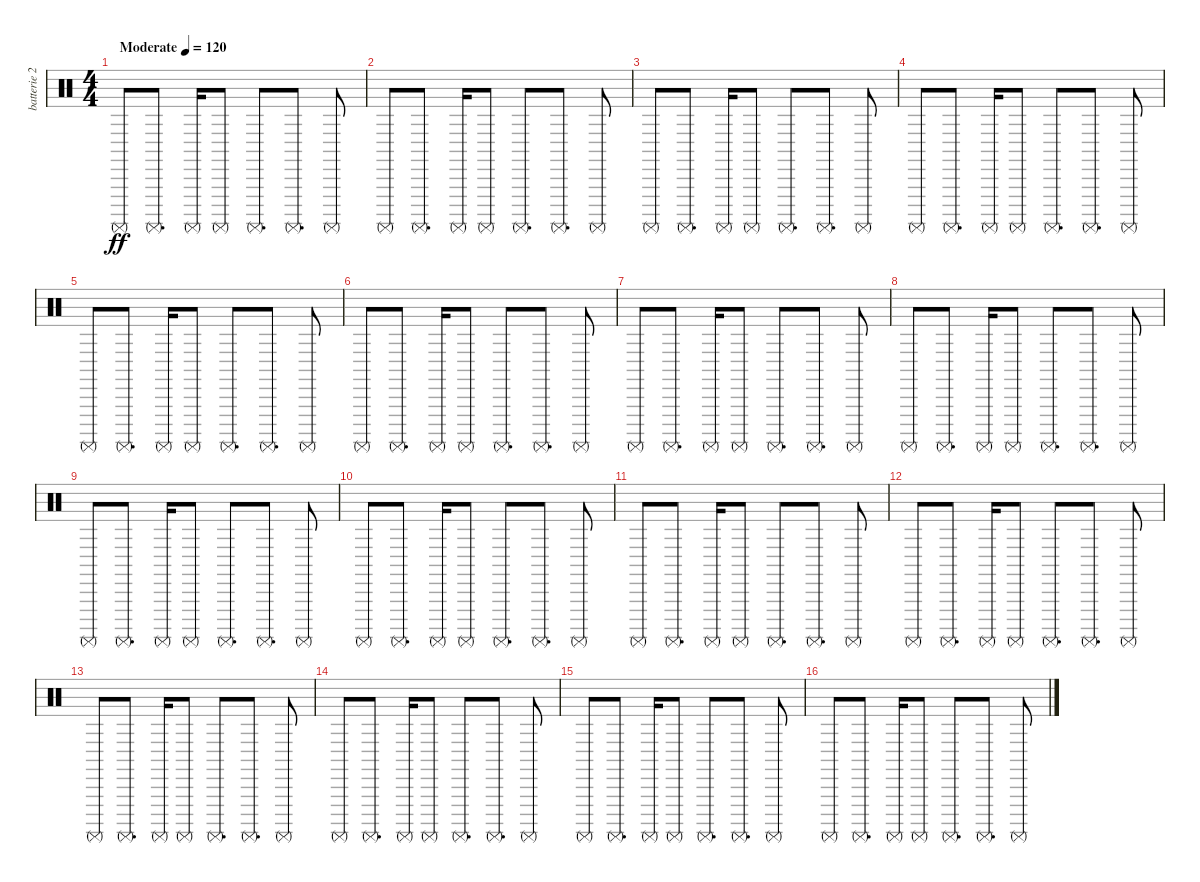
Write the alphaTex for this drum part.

\track ("batterie 2" "batterie 2") {instrument percussion}
\staff {score}
\articulation defaults
\ts (4 4)
\tempo (120 "Moderate")
\clef neutral
\ks c "Surdo (mute)".8{dy ff} "Surdo (mute)".8{d} "Surdo (mute)".16 "Surdo (mute)".8 "Surdo (mute)".8{d} "Surdo (mute)".8{d} "Surdo (mute)".8
|
"Surdo (mute)".8 "Surdo (mute)".8{d} "Surdo (mute)".16 "Surdo (mute)".8 "Surdo (mute)".8{d} "Surdo (mute)".8{d} "Surdo (mute)".8 |
"Surdo (mute)".8 "Surdo (mute)".8{d} "Surdo (mute)".16 "Surdo (mute)".8 "Surdo (mute)".8{d} "Surdo (mute)".8{d} "Surdo (mute)".8 |
"Surdo (mute)".8 "Surdo (mute)".8{d} "Surdo (mute)".16 "Surdo (mute)".8 "Surdo (mute)".8{d} "Surdo (mute)".8{d} "Surdo (mute)".8 |
"Surdo (mute)".8 "Surdo (mute)".8{d} "Surdo (mute)".16 "Surdo (mute)".8 "Surdo (mute)".8{d} "Surdo (mute)".8{d} "Surdo (mute)".8 |
"Surdo (mute)".8 "Surdo (mute)".8{d} "Surdo (mute)".16 "Surdo (mute)".8 "Surdo (mute)".8{d} "Surdo (mute)".8{d} "Surdo (mute)".8 |
"Surdo (mute)".8 "Surdo (mute)".8{d} "Surdo (mute)".16 "Surdo (mute)".8 "Surdo (mute)".8{d} "Surdo (mute)".8{d} "Surdo (mute)".8 |
"Surdo (mute)".8 "Surdo (mute)".8{d} "Surdo (mute)".16 "Surdo (mute)".8 "Surdo (mute)".8{d} "Surdo (mute)".8{d} "Surdo (mute)".8 |
"Surdo (mute)".8 "Surdo (mute)".8{d} "Surdo (mute)".16 "Surdo (mute)".8 "Surdo (mute)".8{d} "Surdo (mute)".8{d} "Surdo (mute)".8 |
"Surdo (mute)".8 "Surdo (mute)".8{d} "Surdo (mute)".16 "Surdo (mute)".8 "Surdo (mute)".8{d} "Surdo (mute)".8{d} "Surdo (mute)".8 |
"Surdo (mute)".8 "Surdo (mute)".8{d} "Surdo (mute)".16 "Surdo (mute)".8 "Surdo (mute)".8{d} "Surdo (mute)".8{d} "Surdo (mute)".8 |
"Surdo (mute)".8 "Surdo (mute)".8{d} "Surdo (mute)".16 "Surdo (mute)".8 "Surdo (mute)".8{d} "Surdo (mute)".8{d} "Surdo (mute)".8 |
"Surdo (mute)".8 "Surdo (mute)".8{d} "Surdo (mute)".16 "Surdo (mute)".8 "Surdo (mute)".8{d} "Surdo (mute)".8{d} "Surdo (mute)".8 |
"Surdo (mute)".8 "Surdo (mute)".8{d} "Surdo (mute)".16 "Surdo (mute)".8 "Surdo (mute)".8{d} "Surdo (mute)".8{d} "Surdo (mute)".8 |
"Surdo (mute)".8 "Surdo (mute)".8{d} "Surdo (mute)".16 "Surdo (mute)".8 "Surdo (mute)".8{d} "Surdo (mute)".8{d} "Surdo (mute)".8 |
"Surdo (mute)".8 "Surdo (mute)".8{d} "Surdo (mute)".16 "Surdo (mute)".8 "Surdo (mute)".8{d} "Surdo (mute)".8{d} "Surdo (mute)".8
